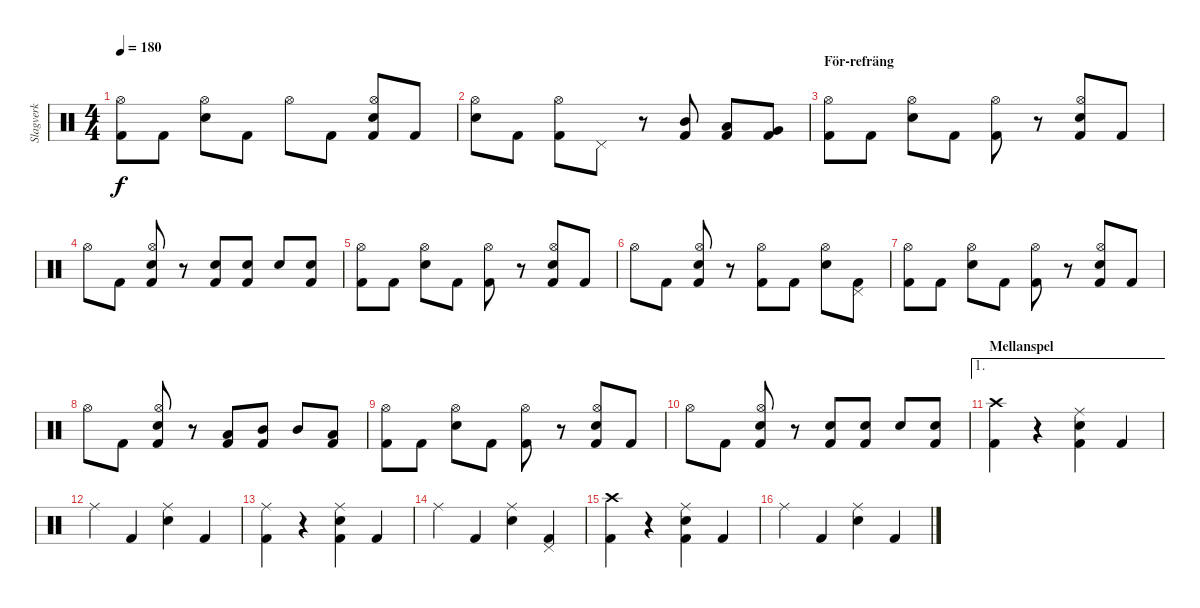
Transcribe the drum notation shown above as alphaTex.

\track ("Slagverk" "Slagverk") {instrument percussion}
\staff {score}
\articulation defaults
\ts (4 4)
\tempo 180
\clef neutral
\ks c
("Kick (hit) 2" "Hi-Hat (open)").8{dy f} "Kick (hit) 2".8 ("Snare (hit) 2" "Hi-Hat (open)").8 "Kick (hit) 2".8 "Hi-Hat (open)".8 "Kick (hit) 2".8 ("Kick (hit) 2" "Snare (hit) 2" "Hi-Hat (open)").8 "Kick (hit) 2".8 |
("Snare (hit) 2" "Hi-Hat (open)").8 "Kick (hit) 2".8 ("Kick (hit) 2" "Hi-Hat (open)").8 "Pedal Hi-Hat (hit)".8 r.8 ("Kick (hit) 2" "Mid Tom (hit)").8 ("Kick (hit) 2" "Low Tom (hit)").8 ("Kick (hit) 2" "Very Low Tom (hit)").8 |
\section ("" "För-refräng")
("Kick (hit) 2" "Hi-Hat (open)").8 "Kick (hit) 2".8 ("Snare (hit) 2" "Hi-Hat (open)").8 "Kick (hit) 2".8 ("Kick (hit) 2" "Hi-Hat (open)").8 r.8 ("Kick (hit) 2" "Snare (hit) 2" "Hi-Hat (open)").8 "Kick (hit) 2".8 |
"Hi-Hat (open)".8 "Kick (hit) 2".8 ("Kick (hit) 2" "Snare (hit) 2" "Hi-Hat (open)").8 r.8 ("Kick (hit) 2" "Snare (hit) 2").8 ("Kick (hit) 2" "Snare (hit) 2").8 "Snare (hit) 2".8 ("Kick (hit) 2" "Snare (hit) 2").8 |
("Kick (hit) 2" "Hi-Hat (open)").8 "Kick (hit) 2".8 ("Snare (hit) 2" "Hi-Hat (open)").8 "Kick (hit) 2".8 ("Kick (hit) 2" "Hi-Hat (open)").8 r.8 ("Kick (hit) 2" "Snare (hit) 2" "Hi-Hat (open)").8 "Kick (hit) 2".8 |
"Hi-Hat (open)".8 "Kick (hit) 2".8 ("Kick (hit) 2" "Snare (hit) 2" "Hi-Hat (open)").8 r.8 ("Kick (hit) 2" "Hi-Hat (open)").8 "Kick (hit) 2".8 ("Snare (hit) 2" "Hi-Hat (open)").8 ("Kick (hit) 2" "Pedal Hi-Hat (hit)").8 |
("Kick (hit) 2" "Hi-Hat (open)").8 "Kick (hit) 2".8 ("Snare (hit) 2" "Hi-Hat (open)").8 "Kick (hit) 2".8 ("Kick (hit) 2" "Hi-Hat (open)").8 r.8 ("Kick (hit) 2" "Snare (hit) 2" "Hi-Hat (open)").8 "Kick (hit) 2".8 |
"Hi-Hat (open)".8 "Kick (hit) 2".8 ("Kick (hit) 2" "Snare (hit) 2" "Hi-Hat (open)").8 r.8 ("Kick (hit) 2" "Low Tom (hit)").8 ("Kick (hit) 2" "Mid Tom (hit)").8 "Mid Tom (hit)".8 ("Kick (hit) 2" "Low Tom (hit)").8 |
("Kick (hit) 2" "Hi-Hat (open)").8 "Kick (hit) 2".8 ("Snare (hit) 2" "Hi-Hat (open)").8 "Kick (hit) 2".8 ("Kick (hit) 2" "Hi-Hat (open)").8 r.8 ("Kick (hit) 2" "Snare (hit) 2" "Hi-Hat (open)").8 "Kick (hit) 2".8 |
"Hi-Hat (open)".8 "Kick (hit) 2".8 ("Kick (hit) 2" "Snare (hit) 2" "Hi-Hat (open)").8 r.8 ("Kick (hit) 2" "Snare (hit) 2").8 ("Kick (hit) 2" "Snare (hit) 2").8 "Snare (hit) 2".8 ("Kick (hit) 2" "Snare (hit) 2").8 |
\ae 1
\section ("" "Mellanspel")
("Kick (hit) 2" "Crash high (hit)").4 r.4 ("Kick (hit) 2" "Snare (hit) 2" "Ride (middle)").4 "Kick (hit) 2".4 |
"Ride (middle)".4 "Kick (hit) 2".4 ("Snare (hit) 2" "Ride (middle)").4 "Kick (hit) 2".4 |
("Kick (hit) 2" "Ride (middle)").4 r.4 ("Kick (hit) 2" "Snare (hit) 2" "Ride (middle)").4 "Kick (hit) 2".4 |
"Ride (middle)".4 "Kick (hit) 2".4 ("Snare (hit) 2" "Ride (middle)").4 ("Kick (hit) 2" "Pedal Hi-Hat (hit)").4 |
("Kick (hit) 2" "Crash high (hit)").4 r.4 ("Kick (hit) 2" "Snare (hit) 2" "Ride (middle)").4 "Kick (hit) 2".4 |
"Ride (middle)".4 "Kick (hit) 2".4 ("Snare (hit) 2" "Ride (middle)").4 "Kick (hit) 2".4
